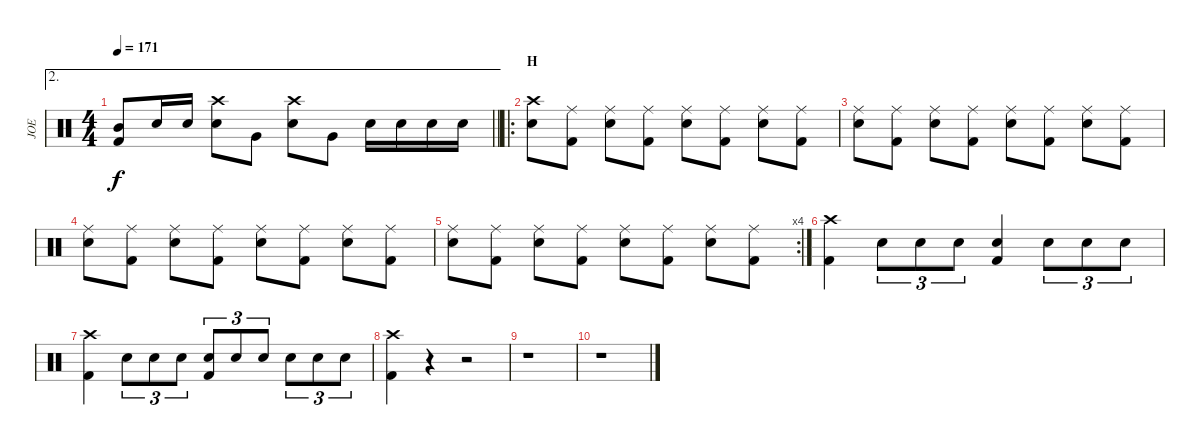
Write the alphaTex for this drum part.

\track ("JOE" "JOE") {instrument percussion}
\staff {score}
\articulation defaults
\ae 2
\ts (4 4)
\tempo 171
\clef neutral
\barLineRight lightlight
\ks c
("Mid Tom (hit)" "Kick (hit) 2").8{dy f} "Snare (hit) 2".16 "Snare (hit) 2".16 ("Crash high (hit)" "Snare (hit) 2").8 "Very Low Tom (hit)".8 ("Crash high (hit)" "Snare (hit) 2").8 "Very Low Tom (hit)".8 "Snare (hit) 2".16 "Snare (hit) 2".16 "Snare (hit) 2".16 "Snare (hit) 2".16 |
\ro
\section ("" "H")
("Crash high (hit)" "Snare (hit) 2").8 ("Ride (middle)" "Kick (hit) 2").8 ("Ride (middle)" "Snare (hit) 2").8 ("Ride (middle)" "Kick (hit) 2").8 ("Ride (middle)" "Snare (hit) 2").8 ("Ride (middle)" "Kick (hit) 2").8 ("Ride (middle)" "Snare (hit) 2").8 ("Ride (middle)" "Kick (hit) 2").8 |
("Ride (middle)" "Snare (hit) 2").8 ("Ride (middle)" "Kick (hit) 2").8 ("Ride (middle)" "Snare (hit) 2").8 ("Ride (middle)" "Kick (hit) 2").8 ("Ride (middle)" "Snare (hit) 2").8 ("Ride (middle)" "Kick (hit) 2").8 ("Ride (middle)" "Snare (hit) 2").8 ("Ride (middle)" "Kick (hit) 2").8 |
("Ride (middle)" "Snare (hit) 2").8 ("Ride (middle)" "Kick (hit) 2").8 ("Ride (middle)" "Snare (hit) 2").8 ("Ride (middle)" "Kick (hit) 2").8 ("Ride (middle)" "Snare (hit) 2").8 ("Ride (middle)" "Kick (hit) 2").8 ("Ride (middle)" "Snare (hit) 2").8 ("Ride (middle)" "Kick (hit) 2").8 |
\rc 4
("Ride (middle)" "Snare (hit) 2").8 ("Ride (middle)" "Kick (hit) 2").8 ("Ride (middle)" "Snare (hit) 2").8 ("Ride (middle)" "Kick (hit) 2").8 ("Ride (middle)" "Snare (hit) 2").8 ("Ride (middle)" "Kick (hit) 2").8 ("Ride (middle)" "Snare (hit) 2").8 ("Ride (middle)" "Kick (hit) 2").8 |
("Crash high (hit)" "Kick (hit) 2").4 "Snare (hit) 2".8{tu (3 2)} "Snare (hit) 2".8{tu (3 2)} "Snare (hit) 2".8{tu (3 2)} ("Snare (hit) 2" "Kick (hit) 2").4 "Snare (hit) 2".8{tu (3 2)} "Snare (hit) 2".8{tu (3 2)} "Snare (hit) 2".8{tu (3 2)} |
("Crash high (hit)" "Kick (hit) 2").4 "Snare (hit) 2".8{tu (3 2)} "Snare (hit) 2".8{tu (3 2)} "Snare (hit) 2".8{tu (3 2)} ("Snare (hit) 2" "Kick (hit) 2").8{tu (3 2)} "Snare (hit) 2".8{tu (3 2)} "Snare (hit) 2".8{tu (3 2)} "Snare (hit) 2".8{tu (3 2)} "Snare (hit) 2".8{tu (3 2)} "Snare (hit) 2".8{tu (3 2)} |
("Crash high (hit)" "Kick (hit) 2").4 r.4 r.2 |
r.1 |
r.1
